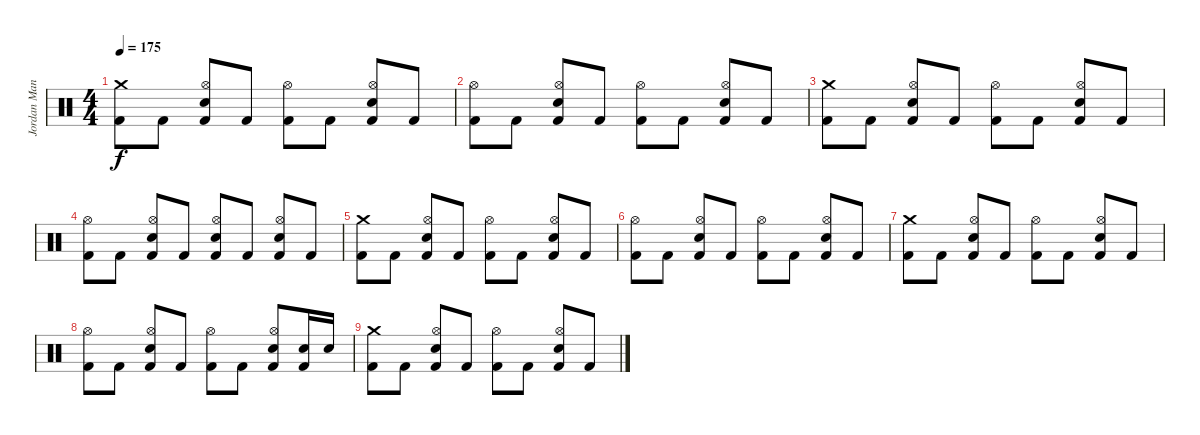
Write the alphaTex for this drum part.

\track ("Jordan Mancino" "Jordan Man") {instrument percussion}
\staff {score}
\articulation defaults
\ts (4 4)
\tempo 175
\clef neutral
\ks c
("Crash medium (hit)" "Kick (hit) 2").8{dy f} "Kick (hit) 2".8 ("Hi-Hat (open)" "Electric Snare (hit)" "Kick (hit) 2").8 "Kick (hit) 2".8 ("Hi-Hat (open)" "Kick (hit) 2").8 "Kick (hit) 2".8 ("Hi-Hat (open)" "Electric Snare (hit)" "Kick (hit) 2").8 "Kick (hit) 2".8 |
("Hi-Hat (open)" "Kick (hit) 2").8 "Kick (hit) 2".8 ("Hi-Hat (open)" "Electric Snare (hit)" "Kick (hit) 2").8 "Kick (hit) 2".8 ("Hi-Hat (open)" "Kick (hit) 2").8 "Kick (hit) 2".8 ("Hi-Hat (open)" "Electric Snare (hit)" "Kick (hit) 2").8 "Kick (hit) 2".8 |
("Crash medium (hit)" "Kick (hit) 2").8 "Kick (hit) 2".8 ("Hi-Hat (open)" "Electric Snare (hit)" "Kick (hit) 2").8 "Kick (hit) 2".8 ("Hi-Hat (open)" "Kick (hit) 2").8 "Kick (hit) 2".8 ("Hi-Hat (open)" "Electric Snare (hit)" "Kick (hit) 2").8 "Kick (hit) 2".8 |
("Hi-Hat (open)" "Kick (hit) 2").8 "Kick (hit) 2".8 ("Hi-Hat (open)" "Electric Snare (hit)" "Kick (hit) 2").8 "Kick (hit) 2".8 ("Hi-Hat (open)" "Electric Snare (hit)" "Kick (hit) 2").8 "Kick (hit) 2".8 ("Hi-Hat (open)" "Electric Snare (hit)" "Kick (hit) 2").8 "Kick (hit) 2".8 |
("Crash medium (hit)" "Kick (hit) 2").8 "Kick (hit) 2".8 ("Hi-Hat (open)" "Electric Snare (hit)" "Kick (hit) 2").8 "Kick (hit) 2".8 ("Hi-Hat (open)" "Kick (hit) 2").8 "Kick (hit) 2".8 ("Hi-Hat (open)" "Electric Snare (hit)" "Kick (hit) 2").8 "Kick (hit) 2".8 |
("Hi-Hat (open)" "Kick (hit) 2").8 "Kick (hit) 2".8 ("Hi-Hat (open)" "Electric Snare (hit)" "Kick (hit) 2").8 "Kick (hit) 2".8 ("Hi-Hat (open)" "Kick (hit) 2").8 "Kick (hit) 2".8 ("Hi-Hat (open)" "Electric Snare (hit)" "Kick (hit) 2").8 "Kick (hit) 2".8 |
("Crash medium (hit)" "Kick (hit) 2").8 "Kick (hit) 2".8 ("Hi-Hat (open)" "Electric Snare (hit)" "Kick (hit) 2").8 "Kick (hit) 2".8 ("Hi-Hat (open)" "Kick (hit) 2").8 "Kick (hit) 2".8 ("Hi-Hat (open)" "Electric Snare (hit)" "Kick (hit) 2").8 "Kick (hit) 2".8 |
("Hi-Hat (open)" "Kick (hit) 2").8 "Kick (hit) 2".8 ("Hi-Hat (open)" "Electric Snare (hit)" "Kick (hit) 2").8 "Kick (hit) 2".8 ("Hi-Hat (open)" "Kick (hit) 2").8 "Kick (hit) 2".8 ("Hi-Hat (open)" "Electric Snare (hit)" "Kick (hit) 2").8 ("Electric Snare (hit)" "Kick (hit) 2").16 "Electric Snare (hit)".16 |
("Crash medium (hit)" "Kick (hit) 2").8 "Kick (hit) 2".8 ("Hi-Hat (open)" "Electric Snare (hit)" "Kick (hit) 2").8 "Kick (hit) 2".8 ("Hi-Hat (open)" "Kick (hit) 2").8 "Kick (hit) 2".8 ("Hi-Hat (open)" "Electric Snare (hit)" "Kick (hit) 2").8 "Kick (hit) 2".8
